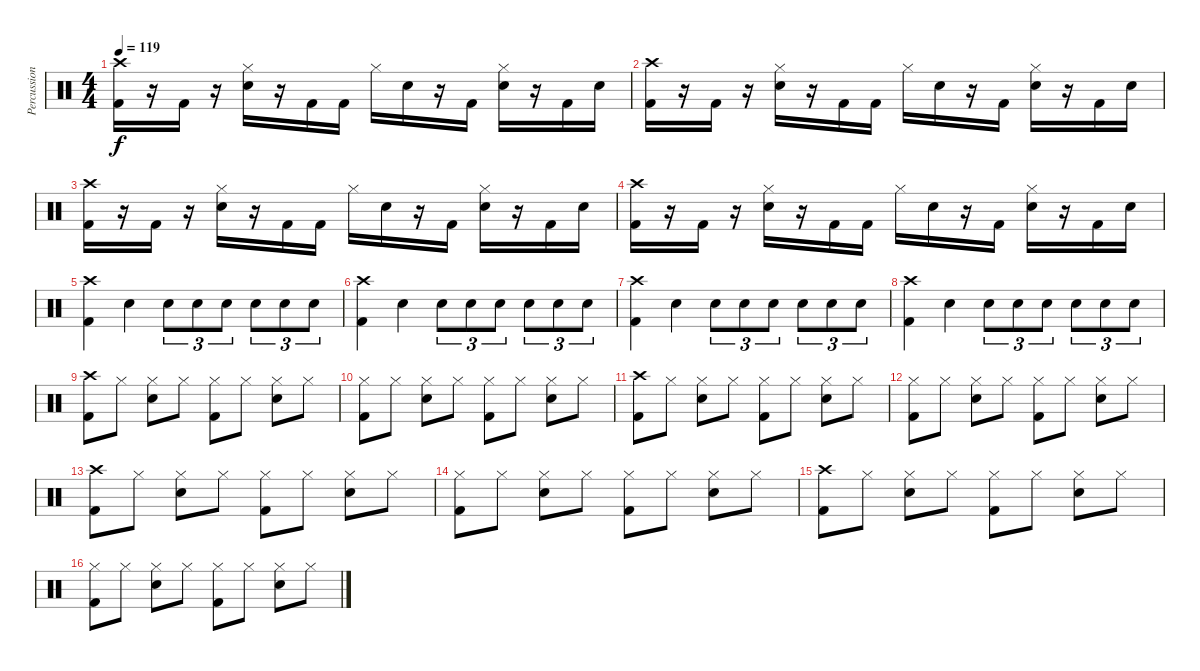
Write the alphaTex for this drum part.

\track ("Percussion" "Percussion") {instrument percussion}
\staff {score}
\articulation defaults
\ts (4 4)
\tempo 119
\clef neutral
\ks c
("Crash high (hit)" "Kick (hit) 2").16{dy f} r.16 "Kick (hit) 2".16 r.16 ("Hi-Hat (closed)" "Electric Snare (hit)").16 r.16 "Kick (hit) 2".16 "Kick (hit) 2".16 "Hi-Hat (closed)".16 "Electric Snare (hit)".16 r.16 "Kick (hit) 2".16 ("Hi-Hat (closed)" "Electric Snare (hit)").16 r.16 "Kick (hit) 2".16 "Electric Snare (hit)".16 |
("Crash high (hit)" "Kick (hit) 2").16 r.16 "Kick (hit) 2".16 r.16 ("Hi-Hat (closed)" "Electric Snare (hit)").16 r.16 "Kick (hit) 2".16 "Kick (hit) 2".16 "Hi-Hat (closed)".16 "Electric Snare (hit)".16 r.16 "Kick (hit) 2".16 ("Hi-Hat (closed)" "Electric Snare (hit)").16 r.16 "Kick (hit) 2".16 "Electric Snare (hit)".16 |
("Crash high (hit)" "Kick (hit) 2").16 r.16 "Kick (hit) 2".16 r.16 ("Hi-Hat (closed)" "Electric Snare (hit)").16 r.16 "Kick (hit) 2".16 "Kick (hit) 2".16 "Hi-Hat (closed)".16 "Electric Snare (hit)".16 r.16 "Kick (hit) 2".16 ("Hi-Hat (closed)" "Electric Snare (hit)").16 r.16 "Kick (hit) 2".16 "Electric Snare (hit)".16 |
("Crash high (hit)" "Kick (hit) 2").16 r.16 "Kick (hit) 2".16 r.16 ("Hi-Hat (closed)" "Electric Snare (hit)").16 r.16 "Kick (hit) 2".16 "Kick (hit) 2".16 "Hi-Hat (closed)".16 "Electric Snare (hit)".16 r.16 "Kick (hit) 2".16 ("Hi-Hat (closed)" "Electric Snare (hit)").16 r.16 "Kick (hit) 2".16 "Electric Snare (hit)".16 |
("Crash high (hit)" "Kick (hit) 2").4 "Electric Snare (hit)".4 "Electric Snare (hit)".8{tu (3 2)} "Electric Snare (hit)".8{tu (3 2)} "Electric Snare (hit)".8{tu (3 2)} "Electric Snare (hit)".8{tu (3 2)} "Electric Snare (hit)".8{tu (3 2)} "Electric Snare (hit)".8{tu (3 2)} |
("Crash high (hit)" "Kick (hit) 2").4 "Electric Snare (hit)".4 "Electric Snare (hit)".8{tu (3 2)} "Electric Snare (hit)".8{tu (3 2)} "Electric Snare (hit)".8{tu (3 2)} "Electric Snare (hit)".8{tu (3 2)} "Electric Snare (hit)".8{tu (3 2)} "Electric Snare (hit)".8{tu (3 2)} |
("Crash high (hit)" "Kick (hit) 2").4 "Electric Snare (hit)".4 "Electric Snare (hit)".8{tu (3 2)} "Electric Snare (hit)".8{tu (3 2)} "Electric Snare (hit)".8{tu (3 2)} "Electric Snare (hit)".8{tu (3 2)} "Electric Snare (hit)".8{tu (3 2)} "Electric Snare (hit)".8{tu (3 2)} |
("Crash high (hit)" "Kick (hit) 2").4 "Electric Snare (hit)".4 "Electric Snare (hit)".8{tu (3 2)} "Electric Snare (hit)".8{tu (3 2)} "Electric Snare (hit)".8{tu (3 2)} "Electric Snare (hit)".8{tu (3 2)} "Electric Snare (hit)".8{tu (3 2)} "Electric Snare (hit)".8{tu (3 2)} |
("Crash high (hit)" "Kick (hit) 2").8 "Hi-Hat (closed)".8 ("Hi-Hat (closed)" "Electric Snare (hit)").8 "Hi-Hat (closed)".8 ("Hi-Hat (closed)" "Kick (hit) 2").8 "Hi-Hat (closed)".8 ("Hi-Hat (closed)" "Electric Snare (hit)").8 "Hi-Hat (closed)".8 |
("Hi-Hat (closed)" "Kick (hit) 2").8 "Hi-Hat (closed)".8 ("Hi-Hat (closed)" "Electric Snare (hit)").8 "Hi-Hat (closed)".8 ("Hi-Hat (closed)" "Kick (hit) 2").8 "Hi-Hat (closed)".8 ("Hi-Hat (closed)" "Electric Snare (hit)").8 "Hi-Hat (closed)".8 |
("Crash high (hit)" "Kick (hit) 2").8 "Hi-Hat (closed)".8 ("Hi-Hat (closed)" "Electric Snare (hit)").8 "Hi-Hat (closed)".8 ("Hi-Hat (closed)" "Kick (hit) 2").8 "Hi-Hat (closed)".8 ("Hi-Hat (closed)" "Electric Snare (hit)").8 "Hi-Hat (closed)".8 |
("Hi-Hat (closed)" "Kick (hit) 2").8 "Hi-Hat (closed)".8 ("Hi-Hat (closed)" "Electric Snare (hit)").8 "Hi-Hat (closed)".8 ("Hi-Hat (closed)" "Kick (hit) 2").8 "Hi-Hat (closed)".8 ("Hi-Hat (closed)" "Electric Snare (hit)").8 "Hi-Hat (closed)".8 |
("Crash high (hit)" "Kick (hit) 2").8 "Hi-Hat (closed)".8 ("Hi-Hat (closed)" "Electric Snare (hit)").8 "Hi-Hat (closed)".8 ("Hi-Hat (closed)" "Kick (hit) 2").8 "Hi-Hat (closed)".8 ("Hi-Hat (closed)" "Electric Snare (hit)").8 "Hi-Hat (closed)".8 |
("Hi-Hat (closed)" "Kick (hit) 2").8 "Hi-Hat (closed)".8 ("Hi-Hat (closed)" "Electric Snare (hit)").8 "Hi-Hat (closed)".8 ("Hi-Hat (closed)" "Kick (hit) 2").8 "Hi-Hat (closed)".8 ("Hi-Hat (closed)" "Electric Snare (hit)").8 "Hi-Hat (closed)".8 |
("Crash high (hit)" "Kick (hit) 2").8 "Hi-Hat (closed)".8 ("Hi-Hat (closed)" "Electric Snare (hit)").8 "Hi-Hat (closed)".8 ("Hi-Hat (closed)" "Kick (hit) 2").8 "Hi-Hat (closed)".8 ("Hi-Hat (closed)" "Electric Snare (hit)").8 "Hi-Hat (closed)".8 |
("Hi-Hat (closed)" "Kick (hit) 2").8 "Hi-Hat (closed)".8 ("Hi-Hat (closed)" "Electric Snare (hit)").8 "Hi-Hat (closed)".8 ("Hi-Hat (closed)" "Kick (hit) 2").8 "Hi-Hat (closed)".8 ("Hi-Hat (closed)" "Electric Snare (hit)").8 "Hi-Hat (closed)".8
